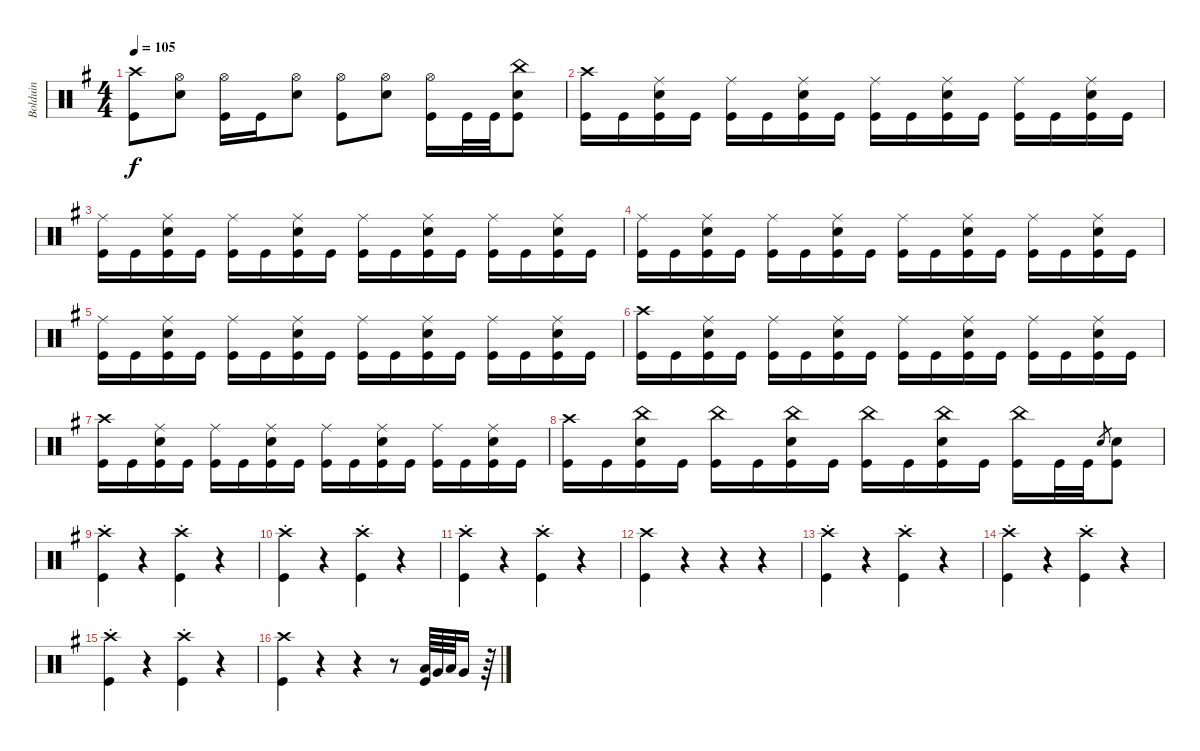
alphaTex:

\track ("Bolduin" "Bolduin") {instrument percussion}
\staff {score}
\articulation defaults
\ts (4 4)
\tempo 105
\clef neutral
\ks eminor
("Kick (hit)" "Crash high (hit)").8{dy f} ("Hi-Hat (open)" "Snare (hit) 2").8 ("Kick (hit)" "Hi-Hat (open)").16 "Kick (hit)".16 ("Hi-Hat (open)" "Snare (hit) 2").8 ("Kick (hit)" "Hi-Hat (open)").8 ("Hi-Hat (open)" "Snare (hit) 2").8 ("Kick (hit)" "Hi-Hat (open)").16 "Kick (hit)".32 "Kick (hit)".32 ("Kick (hit)" "China (hit)" "Snare (hit) 2").8 |
("Kick (hit)" "Crash high (hit)").16 "Kick (hit)".16 ("Kick (hit)" "Ride (middle)" "Snare (hit) 2").16 "Kick (hit)".16 ("Kick (hit)" "Ride (middle)").16 "Kick (hit)".16 ("Kick (hit)" "Ride (middle)" "Snare (hit) 2").16 "Kick (hit)".16 ("Kick (hit)" "Ride (middle)").16 "Kick (hit)".16 ("Kick (hit)" "Ride (middle)" "Snare (hit) 2").16 "Kick (hit)".16 ("Kick (hit)" "Ride (middle)").16 "Kick (hit)".16 ("Kick (hit)" "Ride (middle)" "Snare (hit) 2").16 "Kick (hit)".16 |
("Kick (hit)" "Ride (middle)").16 "Kick (hit)".16 ("Kick (hit)" "Ride (middle)" "Snare (hit) 2").16 "Kick (hit)".16 ("Kick (hit)" "Ride (middle)").16 "Kick (hit)".16 ("Kick (hit)" "Ride (middle)" "Snare (hit) 2").16 "Kick (hit)".16 ("Kick (hit)" "Ride (middle)").16 "Kick (hit)".16 ("Kick (hit)" "Ride (middle)" "Snare (hit) 2").16 "Kick (hit)".16 ("Kick (hit)" "Ride (middle)").16 "Kick (hit)".16 ("Kick (hit)" "Ride (middle)" "Snare (hit) 2").16 "Kick (hit)".16 |
("Kick (hit)" "Ride (middle)").16 "Kick (hit)".16 ("Kick (hit)" "Ride (middle)" "Snare (hit) 2").16 "Kick (hit)".16 ("Kick (hit)" "Ride (middle)").16 "Kick (hit)".16 ("Kick (hit)" "Ride (middle)" "Snare (hit) 2").16 "Kick (hit)".16 ("Kick (hit)" "Ride (middle)").16 "Kick (hit)".16 ("Kick (hit)" "Ride (middle)" "Snare (hit) 2").16 "Kick (hit)".16 ("Kick (hit)" "Ride (middle)").16 "Kick (hit)".16 ("Kick (hit)" "Ride (middle)" "Snare (hit) 2").16 "Kick (hit)".16 |
("Kick (hit)" "Ride (middle)").16 "Kick (hit)".16 ("Kick (hit)" "Ride (middle)" "Snare (hit) 2").16 "Kick (hit)".16 ("Kick (hit)" "Ride (middle)").16 "Kick (hit)".16 ("Kick (hit)" "Ride (middle)" "Snare (hit) 2").16 "Kick (hit)".16 ("Kick (hit)" "Ride (middle)").16 "Kick (hit)".16 ("Kick (hit)" "Ride (middle)" "Snare (hit) 2").16 "Kick (hit)".16 ("Kick (hit)" "Ride (middle)").16 "Kick (hit)".16 ("Kick (hit)" "Ride (middle)" "Snare (hit) 2").16 "Kick (hit)".16 |
("Kick (hit)" "Crash high (hit)").16 "Kick (hit)".16 ("Kick (hit)" "Ride (middle)" "Snare (hit) 2").16 "Kick (hit)".16 ("Kick (hit)" "Ride (middle)").16 "Kick (hit)".16 ("Kick (hit)" "Ride (middle)" "Snare (hit) 2").16 "Kick (hit)".16 ("Kick (hit)" "Ride (middle)").16 "Kick (hit)".16 ("Kick (hit)" "Ride (middle)" "Snare (hit) 2").16 "Kick (hit)".16 ("Kick (hit)" "Ride (middle)").16 "Kick (hit)".16 ("Kick (hit)" "Ride (middle)" "Snare (hit) 2").16 "Kick (hit)".16 |
("Kick (hit)" "Crash high (hit)").16 "Kick (hit)".16 ("Kick (hit)" "Ride (middle)" "Snare (hit) 2").16 "Kick (hit)".16 ("Kick (hit)" "Ride (middle)").16 "Kick (hit)".16 ("Kick (hit)" "Ride (middle)" "Snare (hit) 2").16 "Kick (hit)".16 ("Kick (hit)" "Ride (middle)").16 "Kick (hit)".16 ("Kick (hit)" "Ride (middle)" "Snare (hit) 2").16 "Kick (hit)".16 ("Kick (hit)" "Ride (middle)").16 "Kick (hit)".16 ("Kick (hit)" "Ride (middle)" "Snare (hit) 2").16 "Kick (hit)".16 |
("Kick (hit)" "Crash high (hit)").16 "Kick (hit)".16 ("Kick (hit)" "China (hit)" "Snare (hit) 2").16 "Kick (hit)".16 ("Kick (hit)" "China (hit)").16 "Kick (hit)".16 ("Kick (hit)" "China (hit)" "Snare (hit) 2").16 "Kick (hit)".16 ("Kick (hit)" "China (hit)").16 "Kick (hit)".16 ("Kick (hit)" "China (hit)" "Snare (hit) 2").16 "Kick (hit)".16 ("Kick (hit)" "China (hit)").16 "Kick (hit)".32 "Kick (hit)".32 "Snare (hit) 2".8{gr} ("Kick (hit)" "Snare (hit) 2").8 |
("Crash high (hit)"{st} "Kick (hit)").4 r.4 ("Crash high (hit)"{st} "Kick (hit)").4 r.4 |
("Crash high (hit)"{st} "Kick (hit)").4 r.4 ("Crash high (hit)"{st} "Kick (hit)").4 r.4 |
("Crash high (hit)"{st} "Kick (hit)").4 r.4 ("Crash high (hit)"{st} "Kick (hit)").4 r.4 |
("Kick (hit)" "Crash high (hit)").4 r.4 r.4 r.4 |
("Crash high (hit)"{st} "Kick (hit)").4 r.4 ("Crash high (hit)"{st} "Kick (hit)").4 r.4 |
("Crash high (hit)"{st} "Kick (hit)").4 r.4 ("Crash high (hit)"{st} "Kick (hit)").4 r.4 |
("Crash high (hit)"{st} "Kick (hit)").4 r.4 ("Crash high (hit)"{st} "Kick (hit)").4 r.4 |
("Kick (hit)" "Crash high (hit)").4 r.4 r.4 r.8 ("Kick (hit)" "Low Tom (hit)").64 "Very Low Tom (hit)".64 "Low Tom (hit)".64 "Very Low Tom (hit)".16 r.64
